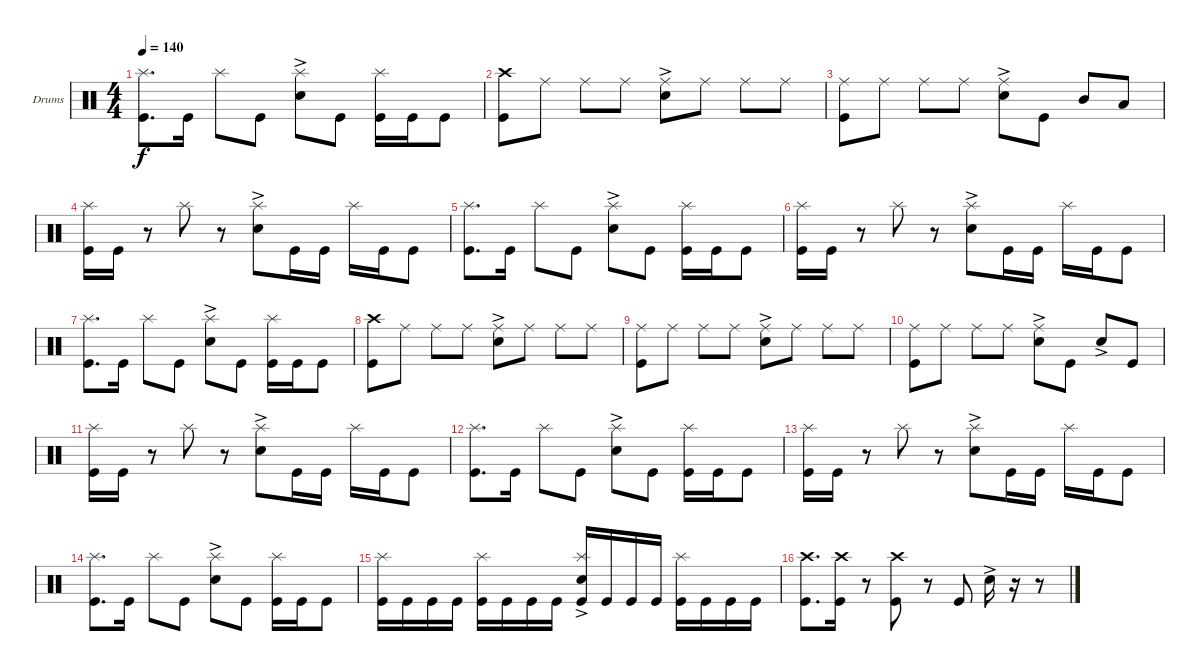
\defaultSystemsLayout 4
\bracketExtendMode groupsimilarinstruments
\firstSystemTrackNameOrientation horizontal
\otherSystemsTrackNameOrientation horizontal
\track ("Drumkit" "Drums") {instrument percussion}
\staff {score}
\articulation defaults
\ts (4 4)
\tempo 140
\clef neutral
\ks c
("Kick (hit)" "Splash (hit)").8{d dy f} "Kick (hit)".16 "Splash (hit)".8 "Kick (hit)".8 ("Snare (hit) 2"{ac} "Splash (hit)").8 "Kick (hit)".8 ("Kick (hit)" "Splash (hit)").16 "Kick (hit)".16 "Kick (hit)".8 |
("Kick (hit)" "Crash high (hit)").8 "Ride (middle)".8 "Ride (middle)".8 "Ride (middle)".8 ("Ride (middle)" "Snare (hit) 2"{ac}).8 "Ride (middle)".8 "Ride (middle)".8 "Ride (middle)".8 |
("Ride (middle)" "Kick (hit)").8 "Ride (middle)".8 "Ride (middle)".8 "Ride (middle)".8 ("Ride (middle)" "Snare (hit) 2"{ac}).8 "Kick (hit)".8 "Mid Tom (hit)".8 "Low Tom (hit)".8 |
("Kick (hit)" "Splash (hit)").16 "Kick (hit)".16 r.8 "Splash (hit)".8 r.8 ("Snare (hit) 2"{ac} "Splash (hit)").8 "Kick (hit)".16 "Kick (hit)".16 "Splash (hit)".16 "Kick (hit)".16 "Kick (hit)".8 |
("Kick (hit)" "Splash (hit)").8{d} "Kick (hit)".16 "Splash (hit)".8 "Kick (hit)".8 ("Snare (hit) 2"{ac} "Splash (hit)").8 "Kick (hit)".8 ("Kick (hit)" "Splash (hit)").16 "Kick (hit)".16 "Kick (hit)".8 |
("Kick (hit)" "Splash (hit)").16 "Kick (hit)".16 r.8 "Splash (hit)".8 r.8 ("Snare (hit) 2"{ac} "Splash (hit)").8 "Kick (hit)".16 "Kick (hit)".16 "Splash (hit)".16 "Kick (hit)".16 "Kick (hit)".8 |
("Kick (hit)" "Splash (hit)").8{d} "Kick (hit)".16 "Splash (hit)".8 "Kick (hit)".8 ("Snare (hit) 2"{ac} "Splash (hit)").8 "Kick (hit)".8 ("Kick (hit)" "Splash (hit)").16 "Kick (hit)".16 "Kick (hit)".8 |
("Kick (hit)" "Crash high (hit)").8 "Ride (middle)".8 "Ride (middle)".8 "Ride (middle)".8 ("Ride (middle)" "Snare (hit) 2"{ac}).8 "Ride (middle)".8 "Ride (middle)".8 "Ride (middle)".8 |
("Ride (middle)" "Kick (hit)").8 "Ride (middle)".8 "Ride (middle)".8 "Ride (middle)".8 ("Ride (middle)" "Snare (hit) 2"{ac}).8 "Ride (middle)".8 "Ride (middle)".8 "Ride (middle)".8 |
("Ride (middle)" "Kick (hit)").8 "Ride (middle)".8 "Ride (middle)".8 "Ride (middle)".8 ("Ride (middle)" "Snare (hit) 2"{ac}).8 "Kick (hit)".8 "Snare (hit) 2"{ac}.8 "Kick (hit)".8 |
("Kick (hit)" "Splash (hit)").16 "Kick (hit)".16 r.8 "Splash (hit)".8 r.8 ("Snare (hit) 2"{ac} "Splash (hit)").8 "Kick (hit)".16 "Kick (hit)".16 "Splash (hit)".16 "Kick (hit)".16 "Kick (hit)".8 |
("Kick (hit)" "Splash (hit)").8{d} "Kick (hit)".16 "Splash (hit)".8 "Kick (hit)".8 ("Snare (hit) 2"{ac} "Splash (hit)").8 "Kick (hit)".8 ("Kick (hit)" "Splash (hit)").16 "Kick (hit)".16 "Kick (hit)".8 |
("Kick (hit)" "Splash (hit)").16 "Kick (hit)".16 r.8 "Splash (hit)".8 r.8 ("Snare (hit) 2"{ac} "Splash (hit)").8 "Kick (hit)".16 "Kick (hit)".16 "Splash (hit)".16 "Kick (hit)".16 "Kick (hit)".8 |
("Kick (hit)" "Splash (hit)").8{d} "Kick (hit)".16 "Splash (hit)".8 "Kick (hit)".8 ("Snare (hit) 2"{ac} "Splash (hit)").8 "Kick (hit)".8 ("Kick (hit)" "Splash (hit)").16 "Kick (hit)".16 "Kick (hit)".8 |
("Kick (hit)" "Splash (hit)").16 "Kick (hit)".16 "Kick (hit)".16 "Kick (hit)".16 ("Kick (hit)" "Splash (hit)").16 "Kick (hit)".16 "Kick (hit)".16 "Kick (hit)".16 ("Splash (hit)" "Kick (hit)" "Snare (hit) 2"{ac}).16 "Kick (hit)".16 "Kick (hit)".16 "Kick (hit)".16 ("Kick (hit)" "Splash (hit)").16 "Kick (hit)".16 "Kick (hit)".16 "Kick (hit)".16 |
("Kick (hit)" "Crash high (hit)").8{d} ("Kick (hit)" "Crash high (hit)").16 r.8 ("Kick (hit)" "Crash high (hit)").8 r.8 "Kick (hit)".8 "Snare (hit) 2"{ac}.16 r.16 r.8
